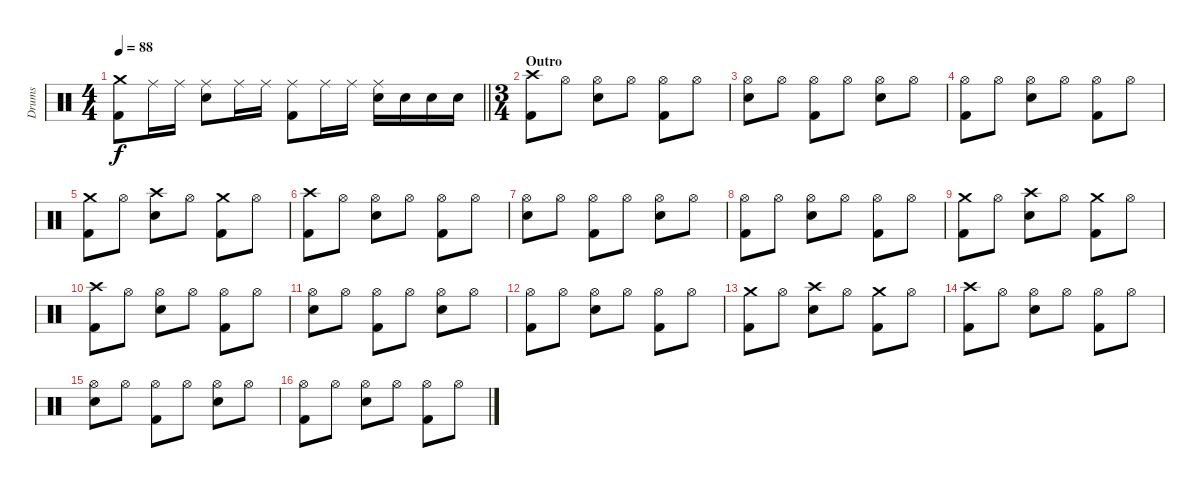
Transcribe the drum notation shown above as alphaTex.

\track ("Drums" "Drums") {instrument percussion}
\staff {score}
\articulation defaults
\ts (4 4)
\tempo 88
\clef neutral
\barLineRight lightlight
\ks c
("Crash medium (hit)" "Kick (hit) 2").8{dy f} "Ride (middle)".16 "Ride (middle)".16 ("Ride (middle)" "Snare (hit) 2").8 "Ride (middle)".16 "Ride (middle)".16 ("Ride (middle)" "Kick (hit) 2").8 "Ride (middle)".16 "Ride (middle)".16 ("Ride (middle)" "Snare (hit) 2").16 "Snare (hit) 2".16 "Snare (hit) 2".16 "Snare (hit) 2".16 |
\ts (3 4)
\section ("" "Outro")
("Crash high (hit)" "Kick (hit) 2").8 "Hi-Hat (open)".8 ("Hi-Hat (open)" "Snare (hit) 2").8 "Hi-Hat (open)".8 ("Hi-Hat (open)" "Kick (hit) 2").8 "Hi-Hat (open)".8 |
("Hi-Hat (open)" "Snare (hit) 2").8 "Hi-Hat (open)".8 ("Hi-Hat (open)" "Kick (hit) 2").8 "Hi-Hat (open)".8 ("Hi-Hat (open)" "Snare (hit) 2").8 "Hi-Hat (open)".8 |
("Hi-Hat (open)" "Kick (hit) 2").8 "Hi-Hat (open)".8 ("Hi-Hat (open)" "Snare (hit) 2").8 "Hi-Hat (open)".8 ("Hi-Hat (open)" "Kick (hit) 2").8 "Hi-Hat (open)".8 |
("Crash medium (hit)" "Kick (hit) 2").8 "Hi-Hat (open)".8 ("Crash high (hit)" "Snare (hit) 2").8 "Hi-Hat (open)".8 ("Crash medium (hit)" "Kick (hit) 2").8 "Hi-Hat (open)".8 |
("Crash high (hit)" "Kick (hit) 2").8 "Hi-Hat (open)".8 ("Hi-Hat (open)" "Snare (hit) 2").8 "Hi-Hat (open)".8 ("Hi-Hat (open)" "Kick (hit) 2").8 "Hi-Hat (open)".8 |
("Hi-Hat (open)" "Snare (hit) 2").8 "Hi-Hat (open)".8 ("Hi-Hat (open)" "Kick (hit) 2").8 "Hi-Hat (open)".8 ("Hi-Hat (open)" "Snare (hit) 2").8 "Hi-Hat (open)".8 |
("Hi-Hat (open)" "Kick (hit) 2").8 "Hi-Hat (open)".8 ("Hi-Hat (open)" "Snare (hit) 2").8 "Hi-Hat (open)".8 ("Hi-Hat (open)" "Kick (hit) 2").8 "Hi-Hat (open)".8 |
("Crash medium (hit)" "Kick (hit) 2").8 "Hi-Hat (open)".8 ("Crash high (hit)" "Snare (hit) 2").8 "Hi-Hat (open)".8 ("Crash medium (hit)" "Kick (hit) 2").8 "Hi-Hat (open)".8 |
("Crash high (hit)" "Kick (hit) 2").8 "Hi-Hat (open)".8 ("Hi-Hat (open)" "Snare (hit) 2").8 "Hi-Hat (open)".8 ("Hi-Hat (open)" "Kick (hit) 2").8 "Hi-Hat (open)".8 |
("Hi-Hat (open)" "Snare (hit) 2").8 "Hi-Hat (open)".8 ("Hi-Hat (open)" "Kick (hit) 2").8 "Hi-Hat (open)".8 ("Hi-Hat (open)" "Snare (hit) 2").8 "Hi-Hat (open)".8 |
("Hi-Hat (open)" "Kick (hit) 2").8 "Hi-Hat (open)".8 ("Hi-Hat (open)" "Snare (hit) 2").8 "Hi-Hat (open)".8 ("Hi-Hat (open)" "Kick (hit) 2").8 "Hi-Hat (open)".8 |
("Crash medium (hit)" "Kick (hit) 2").8 "Hi-Hat (open)".8 ("Crash high (hit)" "Snare (hit) 2").8 "Hi-Hat (open)".8 ("Crash medium (hit)" "Kick (hit) 2").8 "Hi-Hat (open)".8 |
("Crash high (hit)" "Kick (hit) 2").8 "Hi-Hat (open)".8 ("Hi-Hat (open)" "Snare (hit) 2").8 "Hi-Hat (open)".8 ("Hi-Hat (open)" "Kick (hit) 2").8 "Hi-Hat (open)".8 |
("Hi-Hat (open)" "Snare (hit) 2").8 "Hi-Hat (open)".8 ("Hi-Hat (open)" "Kick (hit) 2").8 "Hi-Hat (open)".8 ("Hi-Hat (open)" "Snare (hit) 2").8 "Hi-Hat (open)".8 |
("Hi-Hat (open)" "Kick (hit) 2").8 "Hi-Hat (open)".8 ("Hi-Hat (open)" "Snare (hit) 2").8 "Hi-Hat (open)".8 ("Hi-Hat (open)" "Kick (hit) 2").8 "Hi-Hat (open)".8
